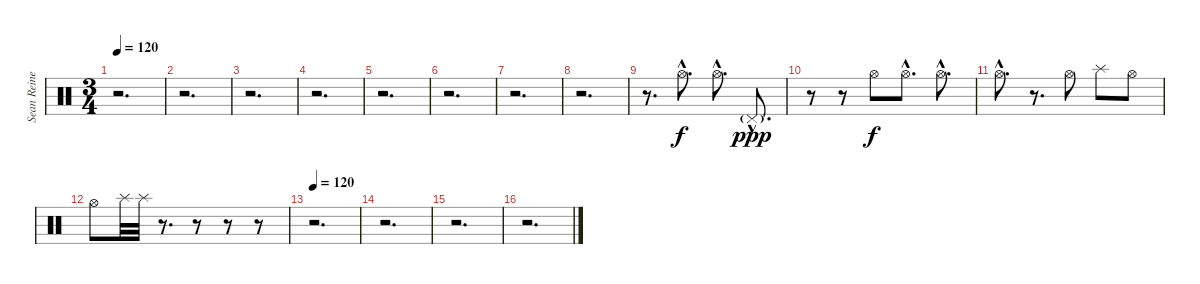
\track ("Sean Reinert" "Sean Reine") {instrument percussion}
\staff {score}
\articulation defaults
\ts (3 4)
\tempo 120
\clef neutral
\ks c
r.2{d dy f} |
r.2{d} |
r.2{d} |
r.2{d} |
r.2{d} |
r.2{d} |
r.2{d} |
r.2{d} |
r.8{d} "Hi-Hat (open)"{hac}.8{d} "Hi-Hat (open)"{hac}.8{d} "Pedal Hi-Hat (hit)"{g hac}.8{d dy ppp} |
r.8 r.8 "Hi-Hat (open)".8{dy f} "Hi-Hat (open)"{hac}.8{d} "Hi-Hat (open)"{hac}.8{d} |
"Hi-Hat (open)"{hac}.8{d} r.8{d} "Hi-Hat (open)".8 "Splash (hit)".8 "Hi-Hat (open)".8 |
"Hi-Hat (open)".8 "Splash (hit)".32 "Splash (hit)".32 r.8{d} r.8 r.8 r.8 |
\tempo 120
r.2{d} |
r.2{d} |
r.2{d} |
r.2{d}
